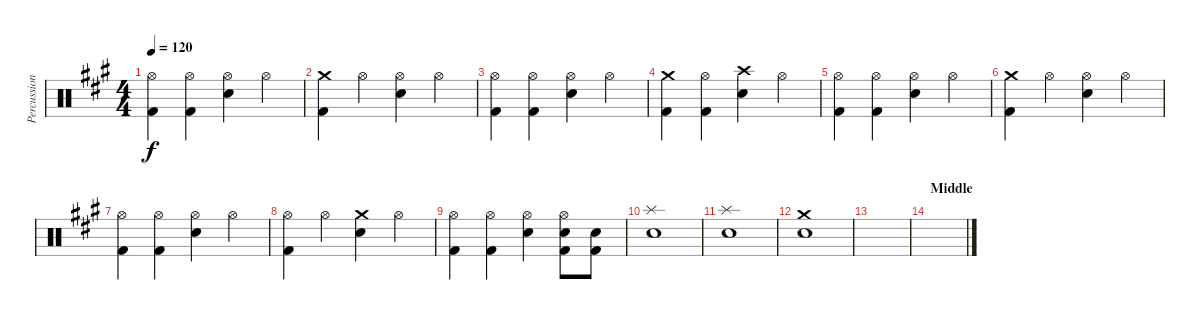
\track ("Percussion" "Percussion") {instrument percussion}
\staff {score}
\articulation defaults
\ts (4 4)
\tempo 120
\clef neutral
\ks a
("Hi-Hat (open)" "Kick (hit) 2").4{dy f} ("Hi-Hat (open)" "Kick (hit) 2").4 ("Hi-Hat (open)" "Snare (hit) 2").4 "Hi-Hat (open)".4 |
("Crash medium (hit)" "Kick (hit) 2").4 "Hi-Hat (open)".4 ("Hi-Hat (open)" "Snare (hit) 2").4 "Hi-Hat (open)".4 |
("Hi-Hat (open)" "Kick (hit) 2").4 ("Hi-Hat (open)" "Kick (hit) 2").4 ("Hi-Hat (open)" "Snare (hit) 2").4 "Hi-Hat (open)".4 |
("Crash medium (hit)" "Kick (hit) 2").4 ("Hi-Hat (open)" "Kick (hit) 2").4 ("Crash high (hit)" "Snare (hit) 2").4 "Hi-Hat (open)".4 |
("Hi-Hat (open)" "Kick (hit) 2").4 ("Hi-Hat (open)" "Kick (hit) 2").4 ("Hi-Hat (open)" "Snare (hit) 2").4 "Hi-Hat (open)".4 |
("Crash medium (hit)" "Kick (hit) 2").4 "Hi-Hat (open)".4 ("Hi-Hat (open)" "Snare (hit) 2").4 "Hi-Hat (open)".4 |
("Hi-Hat (open)" "Kick (hit) 2").4 ("Hi-Hat (open)" "Kick (hit) 2").4 ("Hi-Hat (open)" "Snare (hit) 2").4 "Hi-Hat (open)".4 |
("Hi-Hat (open)" "Kick (hit) 2").4 "Hi-Hat (open)".4 ("Crash medium (hit)" "Snare (hit) 2").4 "Hi-Hat (open)".4 |
("Hi-Hat (open)" "Kick (hit) 2").4 ("Hi-Hat (open)" "Kick (hit) 2").4 ("Hi-Hat (open)" "Snare (hit) 2").4 ("Hi-Hat (open)" "Snare (hit) 2" "Kick (hit) 2").8 ("Snare (hit) 2" "Kick (hit) 2").8 |
("Splash (hit)" "Snare (hit) 2").1 |
("Splash (hit)" "Snare (hit) 2").1 |
("Crash medium (hit)" "Snare (hit) 2").1 |
|
\section ("" "Middle")
